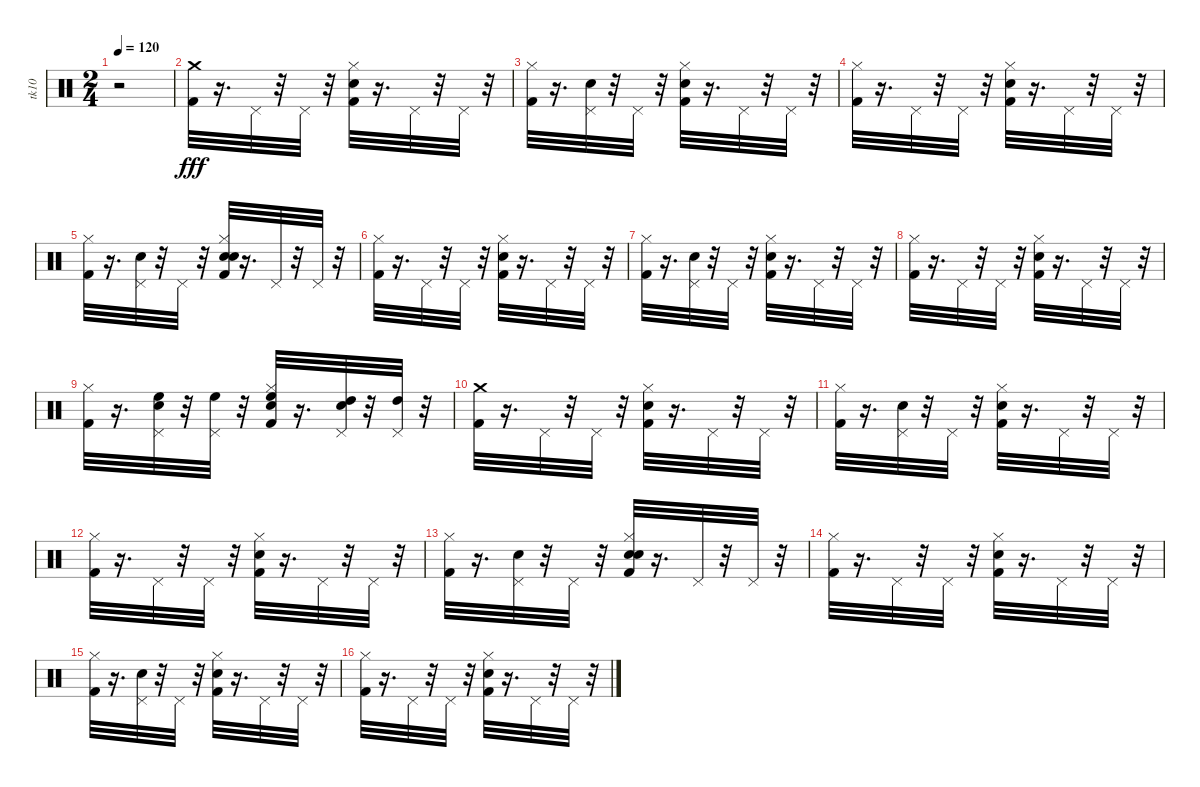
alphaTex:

\track ("tk10" "tk10") {instrument percussion}
\staff {score}
\articulation defaults
\ts (2 4)
\tempo 120
\clef neutral
\ks c
r.2{dy fff} |
("Kick (hit) 2" "Crash medium (hit)").32{balance 8} r.16{d} "Pedal Hi-Hat (hit)".32 r.32 "Pedal Hi-Hat (hit)".32 r.32 ("Snare (hit) 2" "Kick (hit) 2" "Hi-Hat (closed)").32 r.16{d} "Pedal Hi-Hat (hit)".32 r.32 "Pedal Hi-Hat (hit)".32 r.32 |
("Kick (hit) 2" "Hi-Hat (closed)").32 r.16{d} ("Pedal Hi-Hat (hit)" "Hand Clap (hit)").32 r.32 "Pedal Hi-Hat (hit)".32 r.32 ("Snare (hit) 2" "Kick (hit) 2" "Hi-Hat (closed)").32 r.16{d} "Pedal Hi-Hat (hit)".32 r.32 "Pedal Hi-Hat (hit)".32 r.32 |
("Kick (hit) 2" "Hi-Hat (closed)").32 r.16{d} "Pedal Hi-Hat (hit)".32 r.32 "Pedal Hi-Hat (hit)".32 r.32 ("Snare (hit) 2" "Kick (hit) 2" "Hi-Hat (closed)").32 r.16{d} "Pedal Hi-Hat (hit)".32 r.32 "Pedal Hi-Hat (hit)".32 r.32 |
("Kick (hit) 2" "Hi-Hat (closed)").32 r.16{d} ("Hand Clap (hit)" "Pedal Hi-Hat (hit)").32 r.32 "Pedal Hi-Hat (hit)".32 r.32 ("Snare (hit) 2" "Kick (hit) 2" "Hi-Hat (closed)" "Hand Clap (hit)").32 r.16{d} "Pedal Hi-Hat (hit)".32 r.32 "Pedal Hi-Hat (hit)".32 r.32 |
("Kick (hit) 2" "Hi-Hat (closed)").32 r.16{d} "Pedal Hi-Hat (hit)".32 r.32 "Pedal Hi-Hat (hit)".32 r.32 ("Kick (hit) 2" "Snare (hit) 2" "Hi-Hat (closed)").32 r.16{d} "Pedal Hi-Hat (hit)".32 r.32 "Pedal Hi-Hat (hit)".32 r.32 |
("Kick (hit) 2" "Hi-Hat (closed)").32 r.16{d} ("Hand Clap (hit)" "Pedal Hi-Hat (hit)").32 r.32 "Pedal Hi-Hat (hit)".32 r.32 ("Kick (hit) 2" "Snare (hit) 2" "Hi-Hat (closed)").32 r.16{d} "Pedal Hi-Hat (hit)".32 r.32 "Pedal Hi-Hat (hit)".32 r.32 |
("Kick (hit) 2" "Hi-Hat (closed)").32 r.16{d} "Pedal Hi-Hat (hit)".32 r.32 "Pedal Hi-Hat (hit)".32 r.32 ("Snare (hit) 2" "Kick (hit) 2" "Hi-Hat (closed)").32 r.16{d} "Pedal Hi-Hat (hit)".32 r.32 "Pedal Hi-Hat (hit)".32 r.32 |
("Kick (hit) 2" "Hi-Hat (closed)").32 r.16{d} ("Hand Clap (hit)" "High Floor Tom (hit)" "Pedal Hi-Hat (hit)").32 r.32 ("High Floor Tom (hit)" "Pedal Hi-Hat (hit)").32 r.32 ("Snare (hit) 2" "Kick (hit) 2" "High Floor Tom (hit)" "Hi-Hat (closed)").32 r.16{d} ("High Tom (hit)" "Hand Clap (hit)" "Pedal Hi-Hat (hit)").32 r.32 ("High Tom (hit)" "Pedal Hi-Hat (hit)").32 r.32 |
("Kick (hit) 2" "Crash medium (hit)").32 r.16{d} "Pedal Hi-Hat (hit)".32 r.32 "Pedal Hi-Hat (hit)".32 r.32 ("Snare (hit) 2" "Kick (hit) 2" "Hi-Hat (closed)").32 r.16{d} "Pedal Hi-Hat (hit)".32 r.32 "Pedal Hi-Hat (hit)".32 r.32 |
("Kick (hit) 2" "Hi-Hat (closed)").32 r.16{d} ("Pedal Hi-Hat (hit)" "Hand Clap (hit)").32 r.32 "Pedal Hi-Hat (hit)".32 r.32 ("Snare (hit) 2" "Kick (hit) 2" "Hi-Hat (closed)").32 r.16{d} "Pedal Hi-Hat (hit)".32 r.32 "Pedal Hi-Hat (hit)".32 r.32 |
("Kick (hit) 2" "Hi-Hat (closed)").32 r.16{d} "Pedal Hi-Hat (hit)".32 r.32 "Pedal Hi-Hat (hit)".32 r.32 ("Snare (hit) 2" "Kick (hit) 2" "Hi-Hat (closed)").32 r.16{d} "Pedal Hi-Hat (hit)".32 r.32 "Pedal Hi-Hat (hit)".32 r.32 |
("Kick (hit) 2" "Hi-Hat (closed)").32 r.16{d} ("Hand Clap (hit)" "Pedal Hi-Hat (hit)").32 r.32 "Pedal Hi-Hat (hit)".32 r.32 ("Snare (hit) 2" "Kick (hit) 2" "Hand Clap (hit)" "Hi-Hat (closed)").32 r.16{d} "Pedal Hi-Hat (hit)".32 r.32 "Pedal Hi-Hat (hit)".32 r.32 |
("Kick (hit) 2" "Hi-Hat (closed)").32 r.16{d} "Pedal Hi-Hat (hit)".32 r.32 "Pedal Hi-Hat (hit)".32 r.32 ("Kick (hit) 2" "Snare (hit) 2" "Hi-Hat (closed)").32 r.16{d} "Pedal Hi-Hat (hit)".32 r.32 "Pedal Hi-Hat (hit)".32 r.32 |
("Kick (hit) 2" "Hi-Hat (closed)").32 r.16{d} ("Hand Clap (hit)" "Pedal Hi-Hat (hit)").32 r.32 "Pedal Hi-Hat (hit)".32 r.32 ("Kick (hit) 2" "Snare (hit) 2" "Hi-Hat (closed)").32 r.16{d} "Pedal Hi-Hat (hit)".32 r.32 "Pedal Hi-Hat (hit)".32 r.32 |
("Kick (hit) 2" "Hi-Hat (closed)").32 r.16{d} "Pedal Hi-Hat (hit)".32 r.32 "Pedal Hi-Hat (hit)".32 r.32 ("Snare (hit) 2" "Kick (hit) 2" "Hi-Hat (closed)").32 r.16{d} "Pedal Hi-Hat (hit)".32 r.32 "Pedal Hi-Hat (hit)".32 r.32
